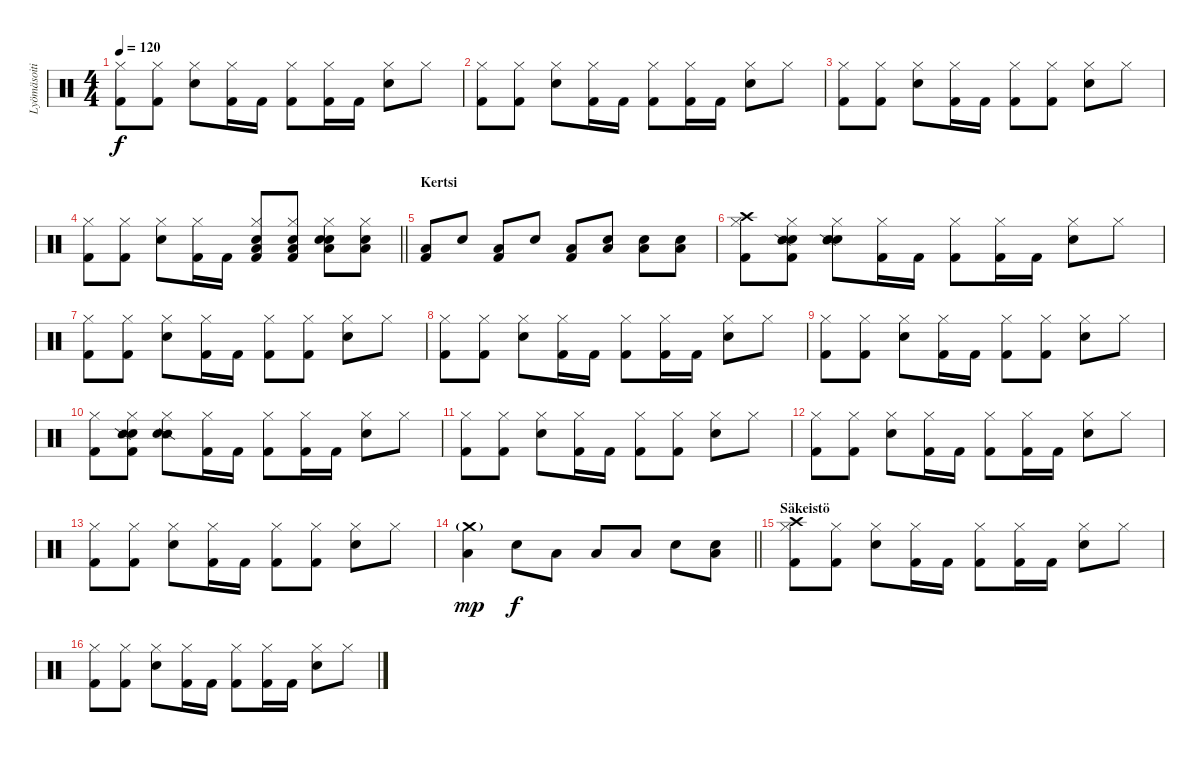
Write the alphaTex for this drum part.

\track ("Lyömäsoitin" "Lyömäsoiti") {instrument percussion}
\staff {score}
\articulation defaults
\ts (4 4)
\tempo 120
\clef neutral
\ks c
("Kick (hit) 2" "Hi-Hat (closed)").8{dy f} ("Kick (hit) 2" "Hi-Hat (closed)").8 ("Snare (hit) 2" "Hi-Hat (closed)").8 ("Kick (hit) 2" "Hi-Hat (closed)").16 "Kick (hit) 2".16 ("Kick (hit) 2" "Hi-Hat (closed)").8 ("Kick (hit) 2" "Hi-Hat (closed)").16 "Kick (hit) 2".16 ("Snare (hit) 2" "Hi-Hat (closed)").8 "Hi-Hat (closed)".8 |
("Kick (hit) 2" "Hi-Hat (closed)").8 ("Kick (hit) 2" "Hi-Hat (closed)").8 ("Snare (hit) 2" "Hi-Hat (closed)").8 ("Kick (hit) 2" "Hi-Hat (closed)").16 "Kick (hit) 2".16 ("Kick (hit) 2" "Hi-Hat (closed)").8 ("Kick (hit) 2" "Hi-Hat (closed)").16 "Kick (hit) 2".16 ("Snare (hit) 2" "Hi-Hat (closed)").8 "Hi-Hat (closed)".8 |
("Kick (hit) 2" "Hi-Hat (closed)").8 ("Kick (hit) 2" "Hi-Hat (closed)").8 ("Snare (hit) 2" "Hi-Hat (closed)").8 ("Kick (hit) 2" "Hi-Hat (closed)").16 "Kick (hit) 2".16 ("Kick (hit) 2" "Hi-Hat (closed)").8 ("Kick (hit) 2" "Hi-Hat (closed)").8 ("Snare (hit) 2" "Hi-Hat (closed)").8 "Hi-Hat (closed)".8 |
\barLineRight lightlight
("Kick (hit) 2" "Hi-Hat (closed)").8 ("Kick (hit) 2" "Hi-Hat (closed)").8 ("Snare (hit) 2" "Hi-Hat (closed)").8 ("Kick (hit) 2" "Hi-Hat (closed)").16 "Kick (hit) 2".16 ("Snare (hit) 2" "Low Floor Tom (hit)" "Kick (hit) 2" "Hi-Hat (closed)").8 ("Snare (hit) 2" "Low Floor Tom (hit)" "Kick (hit) 2" "Hi-Hat (closed)").8 ("Snare (hit) 2" "Low Floor Tom (hit)" "Snare (hit) 2" "Hi-Hat (closed)").8 ("Snare (hit) 2" "Low Floor Tom (hit)" "Hi-Hat (closed)").8 |
\section ("" "Kertsi")
("Low Floor Tom (hit)" "Kick (hit) 2").8 "Snare (hit) 2".8 ("Low Floor Tom (hit)" "Kick (hit) 2").8 "Snare (hit) 2".8 ("Low Floor Tom (hit)" "Kick (hit) 2").8 ("Low Tom (hit)" "Snare (hit) 2").8 ("Low Tom (hit)" "Snare (hit) 2").8 ("Low Tom (hit)" "Snare (hit) 2").8 |
("Crash high (hit)" "Kick (hit) 2" "Hi-Hat (closed)").8 ("Snare (hit) 2" "Snare (side stick) 2" "Kick (hit) 2" "Hi-Hat (closed)").8 ("Snare (hit) 2" "Snare (side stick) 2" "Snare (hit) 2" "Hi-Hat (closed)").8 ("Kick (hit) 2" "Hi-Hat (closed)").16 "Kick (hit) 2".16 ("Kick (hit) 2" "Hi-Hat (closed)").8 ("Kick (hit) 2" "Hi-Hat (closed)").16 "Kick (hit) 2".16 ("Snare (hit) 2" "Hi-Hat (closed)").8 "Hi-Hat (closed)".8 |
("Kick (hit) 2" "Hi-Hat (closed)").8 ("Kick (hit) 2" "Hi-Hat (closed)").8 ("Snare (hit) 2" "Hi-Hat (closed)").8 ("Kick (hit) 2" "Hi-Hat (closed)").16 "Kick (hit) 2".16 ("Kick (hit) 2" "Hi-Hat (closed)").8 ("Kick (hit) 2" "Hi-Hat (closed)").8 ("Snare (hit) 2" "Hi-Hat (closed)").8 "Hi-Hat (closed)".8 |
("Kick (hit) 2" "Hi-Hat (closed)").8 ("Kick (hit) 2" "Hi-Hat (closed)").8 ("Snare (hit) 2" "Hi-Hat (closed)").8 ("Kick (hit) 2" "Hi-Hat (closed)").16 "Kick (hit) 2".16 ("Kick (hit) 2" "Hi-Hat (closed)").8 ("Kick (hit) 2" "Hi-Hat (closed)").16 "Kick (hit) 2".16 ("Snare (hit) 2" "Hi-Hat (closed)").8 "Hi-Hat (closed)".8 |
("Kick (hit) 2" "Hi-Hat (closed)").8 ("Kick (hit) 2" "Hi-Hat (closed)").8 ("Snare (hit) 2" "Hi-Hat (closed)").8 ("Kick (hit) 2" "Hi-Hat (closed)").16 "Kick (hit) 2".16 ("Kick (hit) 2" "Hi-Hat (closed)").8 ("Kick (hit) 2" "Hi-Hat (closed)").8 ("Snare (hit) 2" "Hi-Hat (closed)").8 "Hi-Hat (closed)".8 |
("Kick (hit) 2" "Hi-Hat (closed)").8 ("Snare (hit) 2" "Snare (side stick) 2" "Kick (hit) 2" "Hi-Hat (closed)").8 ("Snare (side stick) 2" "Snare (hit) 2" "Hi-Hat (closed)").8 ("Kick (hit) 2" "Hi-Hat (closed)").16 "Kick (hit) 2".16 ("Kick (hit) 2" "Hi-Hat (closed)").8 ("Kick (hit) 2" "Hi-Hat (closed)").16 "Kick (hit) 2".16 ("Snare (hit) 2" "Hi-Hat (closed)").8 "Hi-Hat (closed)".8 |
("Kick (hit) 2" "Hi-Hat (closed)").8 ("Kick (hit) 2" "Hi-Hat (closed)").8 ("Snare (hit) 2" "Hi-Hat (closed)").8 ("Kick (hit) 2" "Hi-Hat (closed)").16 "Kick (hit) 2".16 ("Kick (hit) 2" "Hi-Hat (closed)").8 ("Kick (hit) 2" "Hi-Hat (closed)").8 ("Snare (hit) 2" "Hi-Hat (closed)").8 "Hi-Hat (closed)".8 |
("Kick (hit) 2" "Hi-Hat (closed)").8 ("Kick (hit) 2" "Hi-Hat (closed)").8 ("Snare (hit) 2" "Hi-Hat (closed)").8 ("Kick (hit) 2" "Hi-Hat (closed)").16 "Kick (hit) 2".16 ("Kick (hit) 2" "Hi-Hat (closed)").8 ("Kick (hit) 2" "Hi-Hat (closed)").16 "Kick (hit) 2".16 ("Snare (hit) 2" "Hi-Hat (closed)").8 "Hi-Hat (closed)".8 |
("Kick (hit) 2" "Hi-Hat (closed)").8 ("Kick (hit) 2" "Hi-Hat (closed)").8 ("Snare (hit) 2" "Hi-Hat (closed)").8 ("Kick (hit) 2" "Hi-Hat (closed)").16 "Kick (hit) 2".16 ("Kick (hit) 2" "Hi-Hat (closed)").8 ("Kick (hit) 2" "Hi-Hat (closed)").8 ("Snare (hit) 2" "Hi-Hat (closed)").8 "Hi-Hat (closed)".8 |
\barLineRight lightlight
("Low Floor Tom (hit)" "Crash medium (hit)"{g}).4{dy mp} "Snare (hit) 2".8{dy f} "Low Floor Tom (hit)".8 "Low Floor Tom (hit)".8 "Low Floor Tom (hit)".8 "Snare (hit) 2".8 ("Snare (hit) 2" "Low Floor Tom (hit)").8 |
\section ("" "Säkeistö")
("Crash high (hit)" "Kick (hit) 2" "Hi-Hat (closed)").8 ("Kick (hit) 2" "Hi-Hat (closed)").8 ("Snare (hit) 2" "Hi-Hat (closed)").8 ("Kick (hit) 2" "Hi-Hat (closed)").16 "Kick (hit) 2".16 ("Kick (hit) 2" "Hi-Hat (closed)").8 ("Kick (hit) 2" "Hi-Hat (closed)").16 "Kick (hit) 2".16 ("Snare (hit) 2" "Hi-Hat (closed)").8 "Hi-Hat (closed)".8 |
("Kick (hit) 2" "Hi-Hat (closed)").8 ("Kick (hit) 2" "Hi-Hat (closed)").8 ("Snare (hit) 2" "Hi-Hat (closed)").8 ("Kick (hit) 2" "Hi-Hat (closed)").16 "Kick (hit) 2".16 ("Kick (hit) 2" "Hi-Hat (closed)").8 ("Kick (hit) 2" "Hi-Hat (closed)").16 "Kick (hit) 2".16 ("Snare (hit) 2" "Hi-Hat (closed)").8 "Hi-Hat (closed)".8
